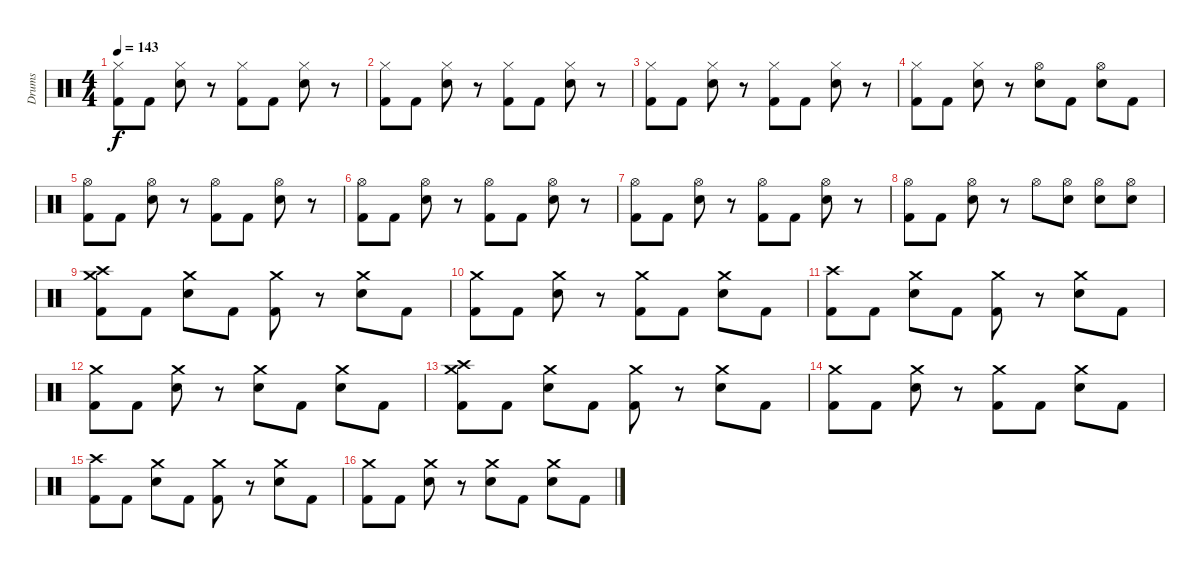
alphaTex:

\track ("Drums" "Drums") {instrument percussion}
\staff {score}
\articulation defaults
\ts (4 4)
\tempo 143
\clef neutral
\ks c
("Hi-Hat (closed)" "Kick (hit) 2").8{dy f} "Kick (hit) 2".8 ("Hi-Hat (closed)" "Electric Snare (hit)").8 r.8 ("Hi-Hat (closed)" "Kick (hit) 2").8 "Kick (hit) 2".8 ("Hi-Hat (closed)" "Electric Snare (hit)").8 r.8 |
("Hi-Hat (closed)" "Kick (hit) 2").8 "Kick (hit) 2".8 ("Hi-Hat (closed)" "Electric Snare (hit)").8 r.8 ("Hi-Hat (closed)" "Kick (hit) 2").8 "Kick (hit) 2".8 ("Hi-Hat (closed)" "Electric Snare (hit)").8 r.8 |
("Hi-Hat (closed)" "Kick (hit) 2").8 "Kick (hit) 2".8 ("Hi-Hat (closed)" "Electric Snare (hit)").8 r.8 ("Hi-Hat (closed)" "Kick (hit) 2").8 "Kick (hit) 2".8 ("Hi-Hat (closed)" "Electric Snare (hit)").8 r.8 |
("Hi-Hat (closed)" "Kick (hit) 2").8 "Kick (hit) 2".8 ("Hi-Hat (closed)" "Electric Snare (hit)").8 r.8 ("Hi-Hat (open)" "Electric Snare (hit)").8 "Kick (hit) 2".8 ("Hi-Hat (open)" "Electric Snare (hit)").8 "Kick (hit) 2".8 |
("Hi-Hat (open)" "Kick (hit) 2").8 "Kick (hit) 2".8 ("Hi-Hat (open)" "Electric Snare (hit)").8 r.8 ("Hi-Hat (open)" "Kick (hit) 2").8 "Kick (hit) 2".8 ("Hi-Hat (open)" "Electric Snare (hit)").8 r.8 |
("Hi-Hat (open)" "Kick (hit) 2").8 "Kick (hit) 2".8 ("Hi-Hat (open)" "Electric Snare (hit)").8 r.8 ("Hi-Hat (open)" "Kick (hit) 2").8 "Kick (hit) 2".8 ("Hi-Hat (open)" "Electric Snare (hit)").8 r.8 |
("Hi-Hat (open)" "Kick (hit) 2").8 "Kick (hit) 2".8 ("Hi-Hat (open)" "Electric Snare (hit)").8 r.8 ("Hi-Hat (open)" "Kick (hit) 2").8 "Kick (hit) 2".8 ("Hi-Hat (open)" "Electric Snare (hit)").8 r.8 |
("Hi-Hat (open)" "Kick (hit) 2").8 "Kick (hit) 2".8 ("Hi-Hat (open)" "Electric Snare (hit)").8 r.8 "Hi-Hat (open)".8 ("Hi-Hat (open)" "Electric Snare (hit)").8 ("Hi-Hat (open)" "Electric Snare (hit)").8 ("Hi-Hat (open)" "Electric Snare (hit)").8 |
("Crash high (hit)" "Crash medium (hit)" "Kick (hit) 2").8 "Kick (hit) 2".8 ("Crash medium (hit)" "Electric Snare (hit)").8 "Kick (hit) 2".8 ("Crash medium (hit)" "Kick (hit) 2").8 r.8 ("Crash medium (hit)" "Electric Snare (hit)").8 "Kick (hit) 2".8 |
("Crash medium (hit)" "Kick (hit) 2").8 "Kick (hit) 2".8 ("Crash medium (hit)" "Electric Snare (hit)").8 r.8 ("Crash medium (hit)" "Kick (hit) 2").8 "Kick (hit) 2".8 ("Crash medium (hit)" "Electric Snare (hit)").8 "Kick (hit) 2".8 |
("Crash high (hit)" "Kick (hit) 2").8 "Kick (hit) 2".8 ("Crash medium (hit)" "Electric Snare (hit)").8 "Kick (hit) 2".8 ("Crash medium (hit)" "Kick (hit) 2").8 r.8 ("Crash medium (hit)" "Electric Snare (hit)").8 "Kick (hit) 2".8 |
("Crash medium (hit)" "Kick (hit) 2").8 "Kick (hit) 2".8 ("Crash medium (hit)" "Electric Snare (hit)").8 r.8 ("Crash medium (hit)" "Electric Snare (hit)").8 "Kick (hit) 2".8 ("Crash medium (hit)" "Electric Snare (hit)").8 "Kick (hit) 2".8 |
("Crash high (hit)" "Crash medium (hit)" "Kick (hit) 2").8 "Kick (hit) 2".8 ("Crash medium (hit)" "Electric Snare (hit)").8 "Kick (hit) 2".8 ("Crash medium (hit)" "Kick (hit) 2").8 r.8 ("Crash medium (hit)" "Electric Snare (hit)").8 "Kick (hit) 2".8 |
("Crash medium (hit)" "Kick (hit) 2").8 "Kick (hit) 2".8 ("Crash medium (hit)" "Electric Snare (hit)").8 r.8 ("Crash medium (hit)" "Kick (hit) 2").8 "Kick (hit) 2".8 ("Crash medium (hit)" "Electric Snare (hit)").8 "Kick (hit) 2".8 |
("Crash high (hit)" "Kick (hit) 2").8 "Kick (hit) 2".8 ("Crash medium (hit)" "Electric Snare (hit)").8 "Kick (hit) 2".8 ("Crash medium (hit)" "Kick (hit) 2").8 r.8 ("Crash medium (hit)" "Electric Snare (hit)").8 "Kick (hit) 2".8 |
("Crash medium (hit)" "Kick (hit) 2").8 "Kick (hit) 2".8 ("Crash medium (hit)" "Electric Snare (hit)").8 r.8 ("Crash medium (hit)" "Electric Snare (hit)").8 "Kick (hit) 2".8 ("Crash medium (hit)" "Electric Snare (hit)").8 "Kick (hit) 2".8
